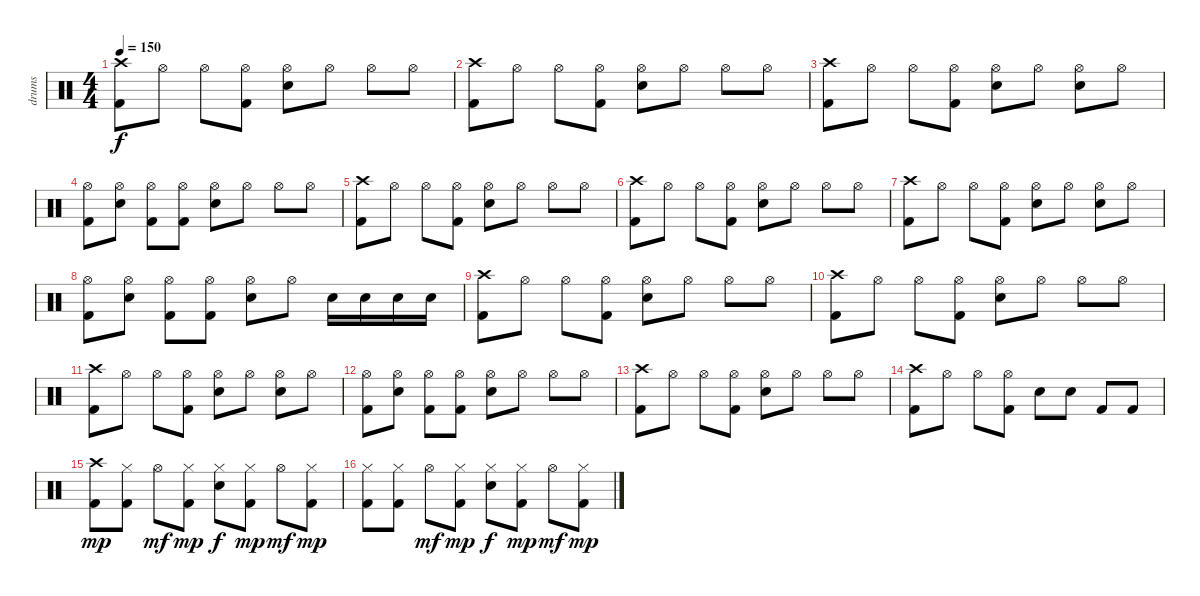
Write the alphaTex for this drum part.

\track ("drums" "drums") {instrument percussion}
\staff {score}
\articulation defaults
\ts (4 4)
\tempo 150
\clef neutral
\ks c
("Crash high (hit)" "Kick (hit) 2").8{dy f} "Hi-Hat (open)".8 "Hi-Hat (open)".8 ("Hi-Hat (open)" "Kick (hit) 2").8 ("Hi-Hat (open)" "Electric Snare (hit)").8 "Hi-Hat (open)".8 "Hi-Hat (open)".8 "Hi-Hat (open)".8 |
("Crash high (hit)" "Kick (hit) 2").8 "Hi-Hat (open)".8 "Hi-Hat (open)".8 ("Hi-Hat (open)" "Kick (hit) 2").8 ("Hi-Hat (open)" "Electric Snare (hit)").8 "Hi-Hat (open)".8 "Hi-Hat (open)".8 "Hi-Hat (open)".8 |
("Crash high (hit)" "Kick (hit) 2").8 "Hi-Hat (open)".8 "Hi-Hat (open)".8 ("Hi-Hat (open)" "Kick (hit) 2").8 ("Hi-Hat (open)" "Electric Snare (hit)").8 "Hi-Hat (open)".8 ("Hi-Hat (open)" "Electric Snare (hit)").8 "Hi-Hat (open)".8 |
("Hi-Hat (open)" "Kick (hit) 2").8 ("Hi-Hat (open)" "Electric Snare (hit)").8 ("Hi-Hat (open)" "Kick (hit) 2").8 ("Hi-Hat (open)" "Kick (hit) 2").8 ("Hi-Hat (open)" "Electric Snare (hit)").8 "Hi-Hat (open)".8 "Hi-Hat (open)".8 "Hi-Hat (open)".8 |
("Crash high (hit)" "Kick (hit) 2").8 "Hi-Hat (open)".8 "Hi-Hat (open)".8 ("Hi-Hat (open)" "Kick (hit) 2").8 ("Hi-Hat (open)" "Electric Snare (hit)").8 "Hi-Hat (open)".8 "Hi-Hat (open)".8 "Hi-Hat (open)".8 |
("Crash high (hit)" "Kick (hit) 2").8 "Hi-Hat (open)".8 "Hi-Hat (open)".8 ("Hi-Hat (open)" "Kick (hit) 2").8 ("Hi-Hat (open)" "Electric Snare (hit)").8 "Hi-Hat (open)".8 "Hi-Hat (open)".8 "Hi-Hat (open)".8 |
("Crash high (hit)" "Kick (hit) 2").8 "Hi-Hat (open)".8 "Hi-Hat (open)".8 ("Hi-Hat (open)" "Kick (hit) 2").8 ("Hi-Hat (open)" "Electric Snare (hit)").8 "Hi-Hat (open)".8 ("Hi-Hat (open)" "Electric Snare (hit)").8 "Hi-Hat (open)".8 |
("Hi-Hat (open)" "Kick (hit) 2").8 ("Hi-Hat (open)" "Electric Snare (hit)").8 ("Hi-Hat (open)" "Kick (hit) 2").8 ("Hi-Hat (open)" "Kick (hit) 2").8 ("Hi-Hat (open)" "Electric Snare (hit)").8 "Hi-Hat (open)".8 "Electric Snare (hit)".16 "Electric Snare (hit)".16 "Electric Snare (hit)".16 "Electric Snare (hit)".16 |
("Crash high (hit)" "Kick (hit) 2").8 "Hi-Hat (open)".8 "Hi-Hat (open)".8 ("Hi-Hat (open)" "Kick (hit) 2").8 ("Hi-Hat (open)" "Electric Snare (hit)").8 "Hi-Hat (open)".8 "Hi-Hat (open)".8 "Hi-Hat (open)".8 |
("Crash high (hit)" "Kick (hit) 2").8 "Hi-Hat (open)".8 "Hi-Hat (open)".8 ("Hi-Hat (open)" "Kick (hit) 2").8 ("Hi-Hat (open)" "Electric Snare (hit)").8 "Hi-Hat (open)".8 "Hi-Hat (open)".8 "Hi-Hat (open)".8 |
("Crash high (hit)" "Kick (hit) 2").8 "Hi-Hat (open)".8 "Hi-Hat (open)".8 ("Hi-Hat (open)" "Kick (hit) 2").8 ("Hi-Hat (open)" "Electric Snare (hit)").8 "Hi-Hat (open)".8 ("Hi-Hat (open)" "Electric Snare (hit)").8 "Hi-Hat (open)".8 |
("Hi-Hat (open)" "Kick (hit) 2").8 ("Hi-Hat (open)" "Electric Snare (hit)").8 ("Hi-Hat (open)" "Kick (hit) 2").8 ("Hi-Hat (open)" "Kick (hit) 2").8 ("Hi-Hat (open)" "Electric Snare (hit)").8 "Hi-Hat (open)".8 "Hi-Hat (open)".8 "Hi-Hat (open)".8 |
("Crash high (hit)" "Kick (hit) 2").8 "Hi-Hat (open)".8 "Hi-Hat (open)".8 ("Hi-Hat (open)" "Kick (hit) 2").8 ("Hi-Hat (open)" "Electric Snare (hit)").8 "Hi-Hat (open)".8 "Hi-Hat (open)".8 "Hi-Hat (open)".8 |
("Crash high (hit)" "Kick (hit) 2").8 "Hi-Hat (open)".8 "Hi-Hat (open)".8 ("Hi-Hat (open)" "Kick (hit) 2").8 "Electric Snare (hit)".8 "Electric Snare (hit)".8 "Kick (hit) 2".8 "Kick (hit) 2".8 |
("Crash high (hit)" "Kick (hit) 2").8{dy mp} ("Hi-Hat (closed)" "Kick (hit) 2").8 "Hi-Hat (open)".8{dy mf} ("Hi-Hat (closed)" "Kick (hit) 2").8{dy mp} ("Hi-Hat (closed)" "Electric Snare (hit)").8{dy f} ("Hi-Hat (closed)" "Kick (hit) 2").8{dy mp} "Hi-Hat (open)".8{dy mf} ("Hi-Hat (closed)" "Kick (hit) 2").8{dy mp} |
("Hi-Hat (closed)" "Kick (hit) 2").8 ("Hi-Hat (closed)" "Kick (hit) 2").8 "Hi-Hat (open)".8{dy mf} ("Hi-Hat (closed)" "Kick (hit) 2").8{dy mp} ("Hi-Hat (closed)" "Electric Snare (hit)").8{dy f} ("Hi-Hat (closed)" "Kick (hit) 2").8{dy mp} "Hi-Hat (open)".8{dy mf} ("Hi-Hat (closed)" "Kick (hit) 2").8{dy mp}
